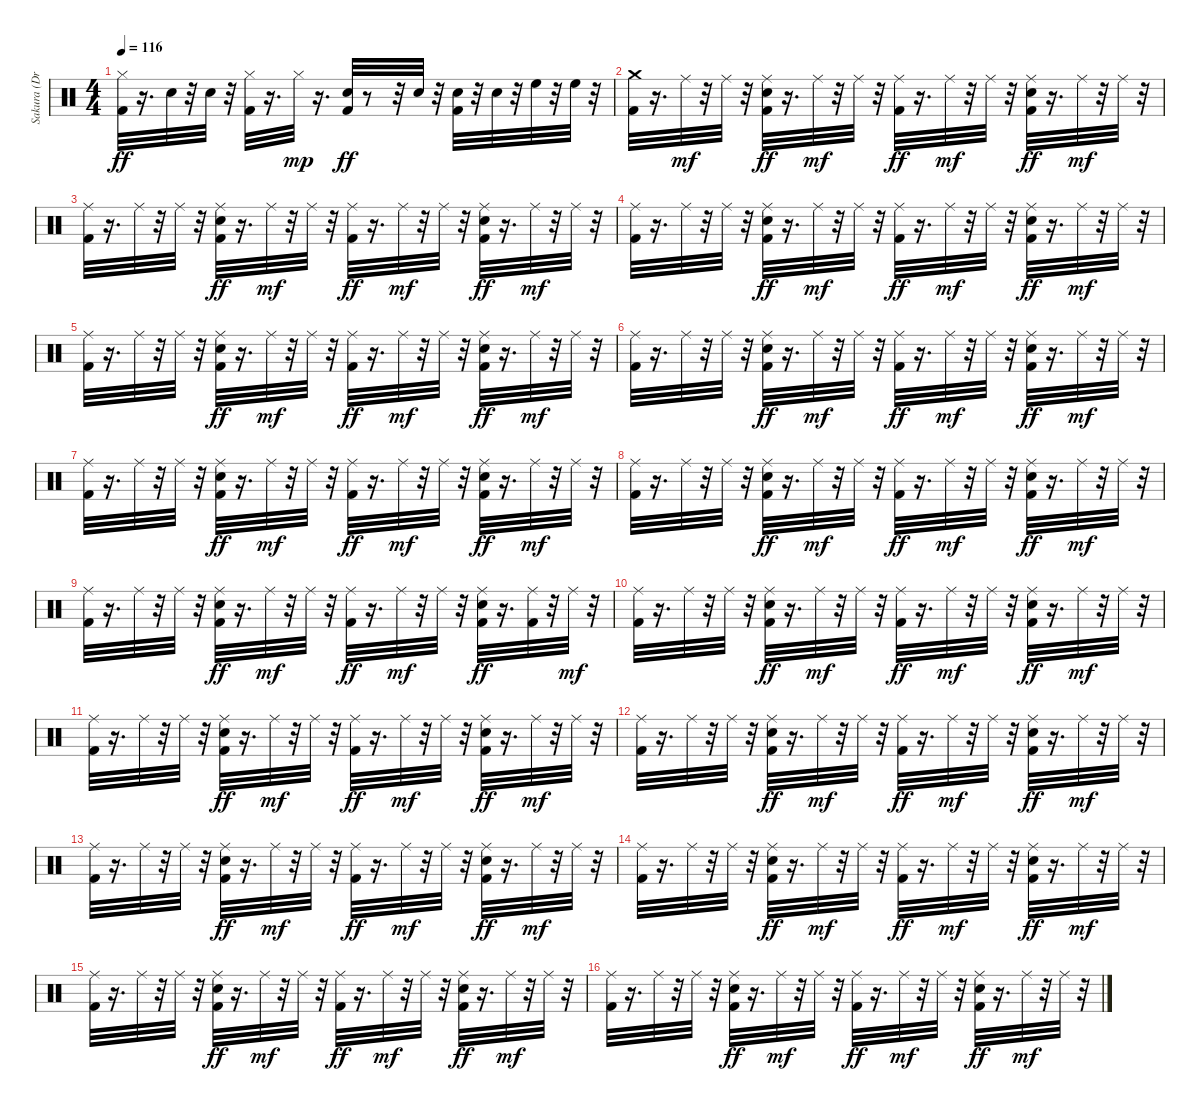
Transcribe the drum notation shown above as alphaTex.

\track ("Sakura (Drums)" "Sakura (Dr") {instrument percussion}
\staff {score}
\articulation defaults
\ts (4 4)
\tempo 116
\clef neutral
\ks c
("Hi-Hat (closed)" "Kick (hit) 2").32{dy ff} r.16{d} "Electric Snare (hit)".32 r.32 "Electric Snare (hit)".32 r.32 ("Hi-Hat (closed)" "Kick (hit) 2").32 r.16{d} "Hi-Hat (closed)".32{dy mp} r.16{d} ("Electric Snare (hit)" "Kick (hit) 2").32{dy ff} r.8 r.32 "Electric Snare (hit)".32 r.32 ("Electric Snare (hit)" "Kick (hit) 2").32 r.32 "Electric Snare (hit)".32 r.32 "High Floor Tom (hit)".32 r.32 "High Floor Tom (hit)".32 r.32 |
("Crash medium (hit)" "Kick (hit) 2").32 r.16{d} "Ride (middle)".32{dy mf} r.32 "Ride (middle)".32 r.32 ("Ride (middle)" "Electric Snare (hit)" "Kick (hit) 2").32{dy ff} r.16{d} "Ride (middle)".32{dy mf} r.32 "Ride (middle)".32 r.32 ("Ride (middle)" "Kick (hit) 2").32{dy ff} r.16{d} "Ride (middle)".32{dy mf} r.32 "Ride (middle)".32 r.32 ("Ride (middle)" "Electric Snare (hit)" "Kick (hit) 2").32{dy ff} r.16{d} "Ride (middle)".32{dy mf} r.32 "Ride (middle)".32 r.32 |
("Kick (hit) 2" "Ride (middle)").32 r.16{d} "Ride (middle)".32 r.32 "Ride (middle)".32 r.32 ("Ride (middle)" "Electric Snare (hit)" "Kick (hit) 2").32{dy ff} r.16{d} "Ride (middle)".32{dy mf} r.32 "Ride (middle)".32 r.32 ("Ride (middle)" "Kick (hit) 2").32{dy ff} r.16{d} "Ride (middle)".32{dy mf} r.32 "Ride (middle)".32 r.32 ("Ride (middle)" "Electric Snare (hit)" "Kick (hit) 2").32{dy ff} r.16{d} "Ride (middle)".32{dy mf} r.32 "Ride (middle)".32 r.32 |
("Kick (hit) 2" "Ride (middle)").32 r.16{d} "Ride (middle)".32 r.32 "Ride (middle)".32 r.32 ("Ride (middle)" "Electric Snare (hit)" "Kick (hit) 2").32{dy ff} r.16{d} "Ride (middle)".32{dy mf} r.32 "Ride (middle)".32 r.32 ("Ride (middle)" "Kick (hit) 2").32{dy ff} r.16{d} "Ride (middle)".32{dy mf} r.32 "Ride (middle)".32 r.32 ("Ride (middle)" "Electric Snare (hit)" "Kick (hit) 2").32{dy ff} r.16{d} "Ride (middle)".32{dy mf} r.32 "Ride (middle)".32 r.32 |
("Kick (hit) 2" "Ride (middle)").32 r.16{d} "Ride (middle)".32 r.32 "Ride (middle)".32 r.32 ("Ride (middle)" "Electric Snare (hit)" "Kick (hit) 2").32{dy ff} r.16{d} "Ride (middle)".32{dy mf} r.32 "Ride (middle)".32 r.32 ("Ride (middle)" "Kick (hit) 2").32{dy ff} r.16{d} "Ride (middle)".32{dy mf} r.32 "Ride (middle)".32 r.32 ("Ride (middle)" "Electric Snare (hit)" "Kick (hit) 2").32{dy ff} r.16{d} "Ride (middle)".32{dy mf} r.32 "Ride (middle)".32 r.32 |
("Kick (hit) 2" "Ride (middle)").32 r.16{d} "Ride (middle)".32 r.32 "Ride (middle)".32 r.32 ("Ride (middle)" "Electric Snare (hit)" "Kick (hit) 2").32{dy ff} r.16{d} "Ride (middle)".32{dy mf} r.32 "Ride (middle)".32 r.32 ("Ride (middle)" "Kick (hit) 2").32{dy ff} r.16{d} "Ride (middle)".32{dy mf} r.32 "Ride (middle)".32 r.32 ("Ride (middle)" "Electric Snare (hit)" "Kick (hit) 2").32{dy ff} r.16{d} "Ride (middle)".32{dy mf} r.32 "Ride (middle)".32 r.32 |
("Kick (hit) 2" "Ride (middle)").32 r.16{d} "Ride (middle)".32 r.32 "Ride (middle)".32 r.32 ("Ride (middle)" "Electric Snare (hit)" "Kick (hit) 2").32{dy ff} r.16{d} "Ride (middle)".32{dy mf} r.32 "Ride (middle)".32 r.32 ("Ride (middle)" "Kick (hit) 2").32{dy ff} r.16{d} "Ride (middle)".32{dy mf} r.32 "Ride (middle)".32 r.32 ("Ride (middle)" "Electric Snare (hit)" "Kick (hit) 2").32{dy ff} r.16{d} "Ride (middle)".32{dy mf} r.32 "Ride (middle)".32 r.32 |
("Kick (hit) 2" "Ride (middle)").32 r.16{d} "Ride (middle)".32 r.32 "Ride (middle)".32 r.32 ("Ride (middle)" "Electric Snare (hit)" "Kick (hit) 2").32{dy ff} r.16{d} "Ride (middle)".32{dy mf} r.32 "Ride (middle)".32 r.32 ("Ride (middle)" "Kick (hit) 2").32{dy ff} r.16{d} "Ride (middle)".32{dy mf} r.32 "Ride (middle)".32 r.32 ("Ride (middle)" "Electric Snare (hit)" "Kick (hit) 2").32{dy ff} r.16{d} "Ride (middle)".32{dy mf} r.32 "Ride (middle)".32 r.32 |
("Kick (hit) 2" "Ride (middle)").32 r.16{d} "Ride (middle)".32 r.32 "Ride (middle)".32 r.32 ("Ride (middle)" "Electric Snare (hit)" "Kick (hit) 2").32{dy ff} r.16{d} "Ride (middle)".32{dy mf} r.32 "Ride (middle)".32 r.32 ("Ride (middle)" "Kick (hit) 2").32{dy ff} r.16{d} "Ride (middle)".32{dy mf} r.32 "Ride (middle)".32 r.32 ("Ride (middle)" "Electric Snare (hit)" "Kick (hit) 2").32{dy ff} r.16{d} ("Ride (middle)" "Kick (hit) 2").32 r.32 "Ride (middle)".32{dy mf} r.32 |
("Kick (hit) 2" "Ride (middle)").32 r.16{d} "Ride (middle)".32 r.32 "Ride (middle)".32 r.32 ("Ride (middle)" "Electric Snare (hit)" "Kick (hit) 2").32{dy ff} r.16{d} "Ride (middle)".32{dy mf} r.32 "Ride (middle)".32 r.32 ("Ride (middle)" "Kick (hit) 2").32{dy ff} r.16{d} "Ride (middle)".32{dy mf} r.32 "Ride (middle)".32 r.32 ("Ride (middle)" "Electric Snare (hit)" "Kick (hit) 2").32{dy ff} r.16{d} "Ride (middle)".32{dy mf} r.32 "Ride (middle)".32 r.32 |
("Kick (hit) 2" "Ride (middle)").32 r.16{d} "Ride (middle)".32 r.32 "Ride (middle)".32 r.32 ("Ride (middle)" "Electric Snare (hit)" "Kick (hit) 2").32{dy ff} r.16{d} "Ride (middle)".32{dy mf} r.32 "Ride (middle)".32 r.32 ("Ride (middle)" "Kick (hit) 2").32{dy ff} r.16{d} "Ride (middle)".32{dy mf} r.32 "Ride (middle)".32 r.32 ("Ride (middle)" "Electric Snare (hit)" "Kick (hit) 2").32{dy ff} r.16{d} "Ride (middle)".32{dy mf} r.32 "Ride (middle)".32 r.32 |
("Kick (hit) 2" "Ride (middle)").32 r.16{d} "Ride (middle)".32 r.32 "Ride (middle)".32 r.32 ("Ride (middle)" "Electric Snare (hit)" "Kick (hit) 2").32{dy ff} r.16{d} "Ride (middle)".32{dy mf} r.32 "Ride (middle)".32 r.32 ("Ride (middle)" "Kick (hit) 2").32{dy ff} r.16{d} "Ride (middle)".32{dy mf} r.32 "Ride (middle)".32 r.32 ("Ride (middle)" "Electric Snare (hit)" "Kick (hit) 2").32{dy ff} r.16{d} "Ride (middle)".32{dy mf} r.32 "Ride (middle)".32 r.32 |
("Kick (hit) 2" "Ride (middle)").32 r.16{d} "Ride (middle)".32 r.32 "Ride (middle)".32 r.32 ("Ride (middle)" "Electric Snare (hit)" "Kick (hit) 2").32{dy ff} r.16{d} "Ride (middle)".32{dy mf} r.32 "Ride (middle)".32 r.32 ("Ride (middle)" "Kick (hit) 2").32{dy ff} r.16{d} "Ride (middle)".32{dy mf} r.32 "Ride (middle)".32 r.32 ("Ride (middle)" "Electric Snare (hit)" "Kick (hit) 2").32{dy ff} r.16{d} "Ride (middle)".32{dy mf} r.32 "Ride (middle)".32 r.32 |
("Kick (hit) 2" "Ride (middle)").32 r.16{d} "Ride (middle)".32 r.32 "Ride (middle)".32 r.32 ("Ride (middle)" "Electric Snare (hit)" "Kick (hit) 2").32{dy ff} r.16{d} "Ride (middle)".32{dy mf} r.32 "Ride (middle)".32 r.32 ("Ride (middle)" "Kick (hit) 2").32{dy ff} r.16{d} "Ride (middle)".32{dy mf} r.32 "Ride (middle)".32 r.32 ("Ride (middle)" "Electric Snare (hit)" "Kick (hit) 2").32{dy ff} r.16{d} "Ride (middle)".32{dy mf} r.32 "Ride (middle)".32 r.32 |
("Kick (hit) 2" "Ride (middle)").32 r.16{d} "Ride (middle)".32 r.32 "Ride (middle)".32 r.32 ("Ride (middle)" "Electric Snare (hit)" "Kick (hit) 2").32{dy ff} r.16{d} "Ride (middle)".32{dy mf} r.32 "Ride (middle)".32 r.32 ("Ride (middle)" "Kick (hit) 2").32{dy ff} r.16{d} "Ride (middle)".32{dy mf} r.32 "Ride (middle)".32 r.32 ("Ride (middle)" "Electric Snare (hit)" "Kick (hit) 2").32{dy ff} r.16{d} "Ride (middle)".32{dy mf} r.32 "Ride (middle)".32 r.32 |
("Kick (hit) 2" "Ride (middle)").32 r.16{d} "Ride (middle)".32 r.32 "Ride (middle)".32 r.32 ("Ride (middle)" "Electric Snare (hit)" "Kick (hit) 2").32{dy ff} r.16{d} "Ride (middle)".32{dy mf} r.32 "Ride (middle)".32 r.32 ("Ride (middle)" "Kick (hit) 2").32{dy ff} r.16{d} "Ride (middle)".32{dy mf} r.32 "Ride (middle)".32 r.32 ("Ride (middle)" "Electric Snare (hit)" "Kick (hit) 2").32{dy ff} r.16{d} "Ride (middle)".32{dy mf} r.32 "Ride (middle)".32 r.32
